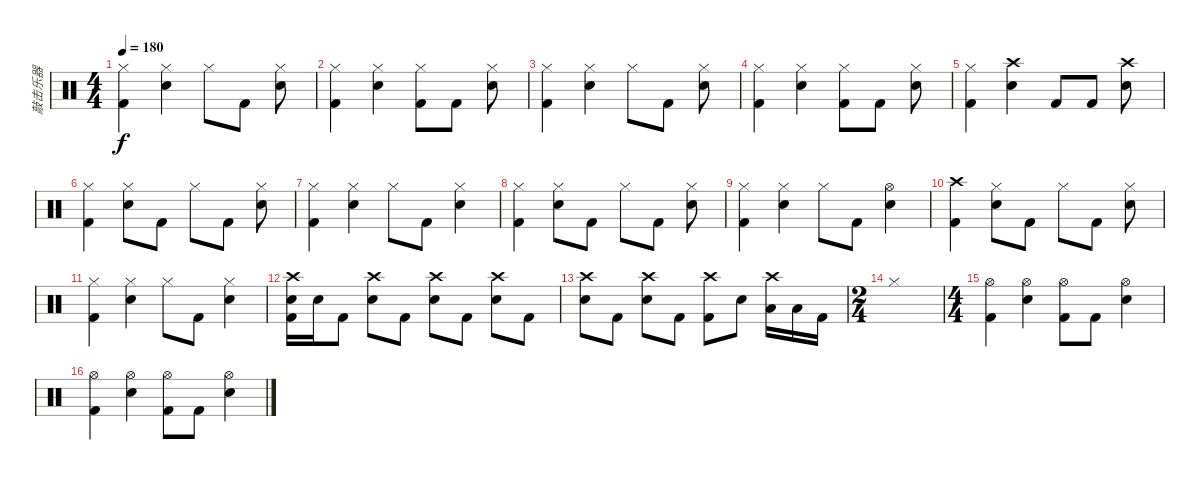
\track ("敲击乐器" "敲击乐器") {instrument percussion}
\staff {score}
\articulation defaults
\ts (4 4)
\tempo 180
\clef neutral
\ks c
("Hi-Hat (closed)" "Kick (hit) 2").4{dy f} ("Hi-Hat (closed)" "Electric Snare (hit)").4 "Hi-Hat (closed)".8 "Kick (hit) 2".8 ("Hi-Hat (closed)" "Electric Snare (hit)").8 |
("Hi-Hat (closed)" "Kick (hit) 2").4 ("Hi-Hat (closed)" "Electric Snare (hit)").4 ("Hi-Hat (closed)" "Kick (hit) 2").8 "Kick (hit) 2".8 ("Hi-Hat (closed)" "Electric Snare (hit)").8 |
("Hi-Hat (closed)" "Kick (hit) 2").4 ("Hi-Hat (closed)" "Electric Snare (hit)").4 "Hi-Hat (closed)".8 "Kick (hit) 2".8 ("Hi-Hat (closed)" "Electric Snare (hit)").8 |
("Hi-Hat (closed)" "Kick (hit) 2").4 ("Hi-Hat (closed)" "Electric Snare (hit)").4 ("Hi-Hat (closed)" "Kick (hit) 2").8 "Kick (hit) 2".8 ("Hi-Hat (closed)" "Electric Snare (hit)").8 |
("Hi-Hat (closed)" "Kick (hit) 2").4 ("Crash high (hit)" "Electric Snare (hit)").4 "Kick (hit) 2".8 "Kick (hit) 2".8 ("Crash high (hit)" "Electric Snare (hit)").8 |
("Hi-Hat (closed)" "Kick (hit) 2").4 ("Hi-Hat (closed)" "Electric Snare (hit)").8 "Kick (hit) 2".8 "Hi-Hat (closed)".8 "Kick (hit) 2".8 ("Hi-Hat (closed)" "Electric Snare (hit)").8 |
("Hi-Hat (closed)" "Kick (hit) 2").4 ("Hi-Hat (closed)" "Electric Snare (hit)").4 "Hi-Hat (closed)".8 "Kick (hit) 2".8 ("Hi-Hat (closed)" "Electric Snare (hit)").4 |
("Hi-Hat (closed)" "Kick (hit) 2").4 ("Hi-Hat (closed)" "Electric Snare (hit)").8 "Kick (hit) 2".8 "Hi-Hat (closed)".8 "Kick (hit) 2".8 ("Hi-Hat (closed)" "Electric Snare (hit)").8 |
("Hi-Hat (closed)" "Kick (hit) 2").4 ("Hi-Hat (closed)" "Electric Snare (hit)").4 "Hi-Hat (closed)".8 "Kick (hit) 2".8 ("Hi-Hat (open)" "Electric Snare (hit)").4 |
("Crash high (hit)" "Kick (hit) 2").4 ("Hi-Hat (closed)" "Electric Snare (hit)").8 "Kick (hit) 2".8 "Hi-Hat (closed)".8 "Kick (hit) 2".8 ("Hi-Hat (closed)" "Electric Snare (hit)").8 |
("Hi-Hat (closed)" "Kick (hit) 2").4 ("Hi-Hat (closed)" "Electric Snare (hit)").4 "Hi-Hat (closed)".8 "Kick (hit) 2".8 ("Hi-Hat (closed)" "Electric Snare (hit)").4 |
("Crash high (hit)" "Electric Snare (hit)" "Kick (hit) 2").16 "Electric Snare (hit)".16 "Kick (hit) 2".8 ("Crash high (hit)" "Electric Snare (hit)").8 "Kick (hit) 2".8 ("Crash high (hit)" "Electric Snare (hit)").8 "Kick (hit) 2".8 ("Crash high (hit)" "Electric Snare (hit)").8 "Kick (hit) 2".8 |
("Crash high (hit)" "Electric Snare (hit)").8 "Kick (hit) 2".8 ("Crash high (hit)" "Electric Snare (hit)").8 "Kick (hit) 2".8 ("Crash high (hit)" "Kick (hit) 2").8 "Electric Snare (hit)".8 ("Crash high (hit)" "Low Tom (hit)").16 "Low Tom (hit)".16 "Kick (hit) 2".16 |
\ts (2 4)
"Hi-Hat (closed)".1 |
\ts (4 4)
("Hi-Hat (open)" "Kick (hit) 2").4 ("Hi-Hat (open)" "Electric Snare (hit)").4 ("Hi-Hat (open)" "Kick (hit) 2").8 "Kick (hit) 2".8 ("Hi-Hat (open)" "Electric Snare (hit)").4 |
("Hi-Hat (open)" "Kick (hit) 2").4 ("Hi-Hat (open)" "Electric Snare (hit)").4 ("Hi-Hat (open)" "Kick (hit) 2").8 "Kick (hit) 2".8 ("Hi-Hat (open)" "Electric Snare (hit)").4
